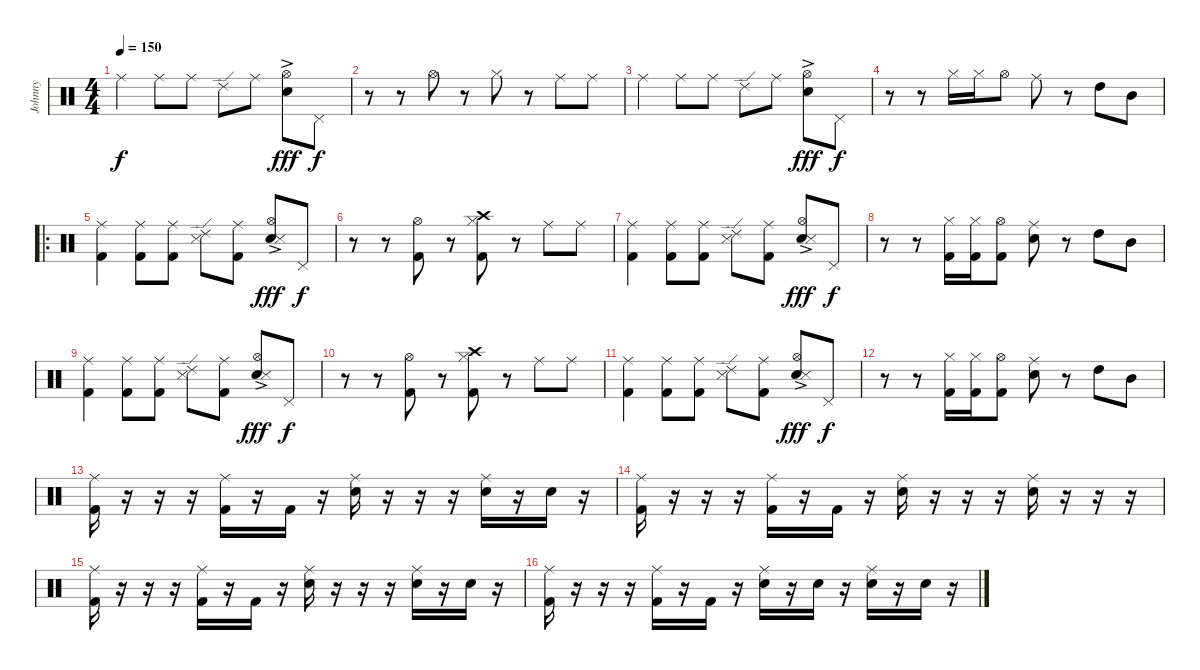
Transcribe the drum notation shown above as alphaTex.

\track ("Johnny" "Johnny") {instrument percussion}
\staff {score}
\articulation defaults
\ts (4 4)
\tempo 150
\clef neutral
\ks c "Ride (middle)".4{dy f} "Ride (middle)".8 "Ride (middle)".8 "Ride (edge) 2".8 "Ride (middle)".8
("Snare (hit)"{x} "Hi-Hat (open)"{ac}).8{dy fff} "Pedal Hi-Hat (hit)".8{dy f} |
r.8 r.8 "Hi-Hat (open)".8 r.8 "Hi-Hat (closed)".8 r.8 "Ride (middle)".8 "Ride (middle)".8 |
"Ride (middle)".4 "Ride (middle)".8 "Ride (middle)".8 "Ride (edge) 2".8 "Ride (middle)".8 ("Snare (hit)"{x} "Hi-Hat (open)"{ac}).8{dy fff} "Pedal Hi-Hat (hit)".8{dy f} |
r.8 r.8 "Hi-Hat (closed)".16 "Hi-Hat (closed)".16 "Hi-Hat (open)".8 "Ride (middle)".8 r.8 "High Tom (hit)".8 "Mid Tom (hit)".8 |
\ro
("Ride (middle)" "Kick (hit) 2").4 ("Ride (middle)" "Kick (hit) 2").8 ("Ride (middle)" "Kick (hit) 2").8 ("Ride (edge) 2" "Snare (side stick) 3").8 ("Ride (middle)" "Kick (hit) 2").8 ("Snare (hit)"{x} "Hi-Hat (open)"{ac} "Snare (side stick) 3").8{dy fff} "Pedal Hi-Hat (hit)".8{dy f} |
r.8 r.8 ("Hi-Hat (open)" "Kick (hit) 2").8 r.8 ("Hi-Hat (closed)" "Kick (hit) 2" "Crash high (hit)").8 r.8 "Ride (middle)".8 "Ride (middle)".8 |
("Ride (middle)" "Kick (hit) 2").4 ("Ride (middle)" "Kick (hit) 2").8 ("Ride (middle)" "Kick (hit) 2").8 ("Ride (edge) 2" "Snare (side stick) 3").8 ("Ride (middle)" "Kick (hit) 2").8 ("Snare (hit)"{x} "Hi-Hat (open)"{ac} "Snare (side stick) 3").8{dy fff} "Pedal Hi-Hat (hit)".8{dy f} |
r.8 r.8 ("Hi-Hat (closed)" "Kick (hit) 2").16 ("Hi-Hat (closed)" "Kick (hit) 2").16 ("Hi-Hat (open)" "Kick (hit) 2").8 ("Ride (middle)" "Snare (hit) 2").8 r.8 "High Tom (hit)".8 "Mid Tom (hit)".8 |
("Ride (middle)" "Kick (hit) 2").4 ("Ride (middle)" "Kick (hit) 2").8 ("Ride (middle)" "Kick (hit) 2").8 ("Ride (edge) 2" "Snare (side stick) 3").8 ("Ride (middle)" "Kick (hit) 2").8 ("Snare (hit)"{x} "Hi-Hat (open)"{ac} "Snare (side stick) 3").8{dy fff} "Pedal Hi-Hat (hit)".8{dy f} |
r.8 r.8 ("Hi-Hat (open)" "Kick (hit) 2").8 r.8 ("Hi-Hat (closed)" "Kick (hit) 2" "Crash high (hit)").8 r.8 "Ride (middle)".8 "Ride (middle)".8 |
("Ride (middle)" "Kick (hit) 2").4 ("Ride (middle)" "Kick (hit) 2").8 ("Ride (middle)" "Kick (hit) 2").8 ("Ride (edge) 2" "Snare (side stick) 3").8 ("Ride (middle)" "Kick (hit) 2").8 ("Snare (hit)"{x} "Hi-Hat (open)"{ac} "Snare (side stick) 3").8{dy fff} "Pedal Hi-Hat (hit)".8{dy f} |
r.8 r.8 ("Hi-Hat (closed)" "Kick (hit) 2").16 ("Hi-Hat (closed)" "Kick (hit) 2").16 ("Hi-Hat (open)" "Kick (hit) 2").8 ("Ride (middle)" "Snare (hit) 2").8 r.8 "High Tom (hit)".8 "Mid Tom (hit)".8 |
("Ride (middle)" "Kick (hit) 2").16 r.16 r.16 r.16 ("Ride (middle)" "Kick (hit) 2").16 r.16 "Kick (hit) 2".16 r.16 ("Ride (middle)" "Snare (hit) 2").16 r.16 r.16 r.16 ("Ride (middle)" "Snare (hit) 2").16 r.16 "Snare (hit) 2".16 r.16 |
("Ride (middle)" "Kick (hit) 2").16 r.16 r.16 r.16 ("Ride (middle)" "Kick (hit) 2").16 r.16 "Kick (hit) 2".16 r.16 ("Ride (middle)" "Snare (hit) 2").16 r.16 r.16 r.16 ("Ride (middle)" "Snare (hit) 2").16 r.16 r.16 r.16 |
("Ride (middle)" "Kick (hit) 2").16 r.16 r.16 r.16 ("Ride (middle)" "Kick (hit) 2").16 r.16 "Kick (hit) 2".16 r.16 ("Ride (middle)" "Snare (hit) 2").16 r.16 r.16 r.16 ("Ride (middle)" "Snare (hit) 2").16 r.16 "Snare (hit) 2".16 r.16 |
("Ride (middle)" "Kick (hit) 2").16 r.16 r.16 r.16 ("Ride (middle)" "Kick (hit) 2").16 r.16 "Kick (hit) 2".16 r.16 ("Ride (middle)" "Snare (hit) 2").16 r.16 "Snare (hit) 2".16 r.16 ("Ride (middle)" "Snare (hit) 2").16 r.16 "Snare (hit) 2".16 r.16
